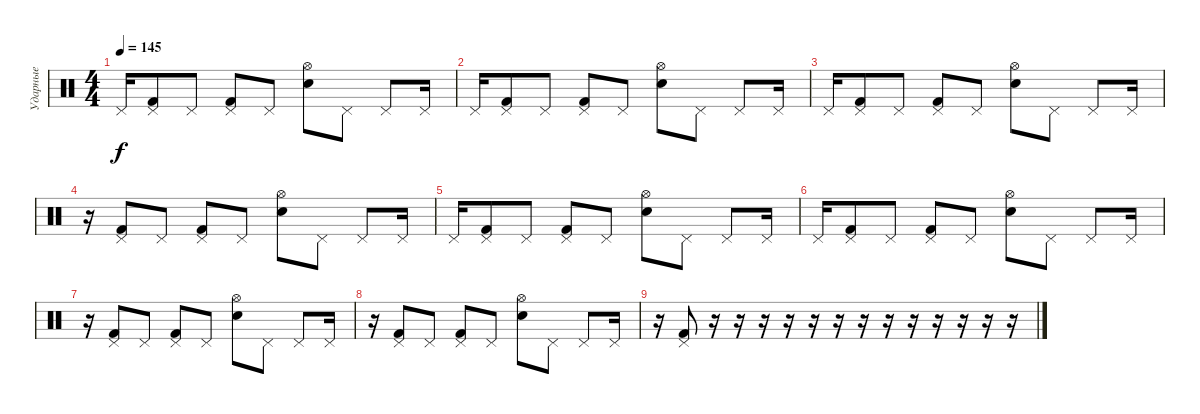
\track ("Ударные" "Ударные") {instrument percussion}
\staff {score}
\articulation defaults
\ts (4 4)
\tempo 145
\clef neutral
\ks c "Pedal Hi-Hat (hit)".16{dy f}
("Pedal Hi-Hat (hit)" "Kick (hit) 2").8 "Pedal Hi-Hat (hit)".8 ("Pedal Hi-Hat (hit)" "Kick (hit) 2").8 "Pedal Hi-Hat (hit)".8 ("Hi-Hat (open)" "Electric Snare (hit)").8 "Pedal Hi-Hat (hit)".8 "Pedal Hi-Hat (hit)".8 "Pedal Hi-Hat (hit)".16 |
"Pedal Hi-Hat (hit)".16 ("Pedal Hi-Hat (hit)" "Kick (hit) 2").8 "Pedal Hi-Hat (hit)".8 ("Pedal Hi-Hat (hit)" "Kick (hit) 2").8 "Pedal Hi-Hat (hit)".8 ("Hi-Hat (open)" "Electric Snare (hit)").8 "Pedal Hi-Hat (hit)".8 "Pedal Hi-Hat (hit)".8 "Pedal Hi-Hat (hit)".16 |
"Pedal Hi-Hat (hit)".16 ("Pedal Hi-Hat (hit)" "Kick (hit) 2").8 "Pedal Hi-Hat (hit)".8 ("Pedal Hi-Hat (hit)" "Kick (hit) 2").8 "Pedal Hi-Hat (hit)".8 ("Hi-Hat (open)" "Electric Snare (hit)").8 "Pedal Hi-Hat (hit)".8 "Pedal Hi-Hat (hit)".8 "Pedal Hi-Hat (hit)".16 |
r.16 ("Pedal Hi-Hat (hit)" "Kick (hit) 2").8 "Pedal Hi-Hat (hit)".8 ("Pedal Hi-Hat (hit)" "Kick (hit) 2").8 "Pedal Hi-Hat (hit)".8 ("Hi-Hat (open)" "Electric Snare (hit)").8 "Pedal Hi-Hat (hit)".8 "Pedal Hi-Hat (hit)".8 "Pedal Hi-Hat (hit)".16 |
"Pedal Hi-Hat (hit)".16 ("Pedal Hi-Hat (hit)" "Kick (hit) 2").8 "Pedal Hi-Hat (hit)".8 ("Pedal Hi-Hat (hit)" "Kick (hit) 2").8 "Pedal Hi-Hat (hit)".8 ("Hi-Hat (open)" "Electric Snare (hit)").8 "Pedal Hi-Hat (hit)".8 "Pedal Hi-Hat (hit)".8 "Pedal Hi-Hat (hit)".16 |
"Pedal Hi-Hat (hit)".16 ("Pedal Hi-Hat (hit)" "Kick (hit) 2").8 "Pedal Hi-Hat (hit)".8 ("Pedal Hi-Hat (hit)" "Kick (hit) 2").8 "Pedal Hi-Hat (hit)".8 ("Hi-Hat (open)" "Electric Snare (hit)").8 "Pedal Hi-Hat (hit)".8 "Pedal Hi-Hat (hit)".8 "Pedal Hi-Hat (hit)".16 |
r.16 ("Pedal Hi-Hat (hit)" "Kick (hit) 2").8 "Pedal Hi-Hat (hit)".8 ("Pedal Hi-Hat (hit)" "Kick (hit) 2").8 "Pedal Hi-Hat (hit)".8 ("Hi-Hat (open)" "Electric Snare (hit)").8 "Pedal Hi-Hat (hit)".8 "Pedal Hi-Hat (hit)".8 "Pedal Hi-Hat (hit)".16 |
r.16 ("Pedal Hi-Hat (hit)" "Kick (hit) 2").8 "Pedal Hi-Hat (hit)".8 ("Pedal Hi-Hat (hit)" "Kick (hit) 2").8 "Pedal Hi-Hat (hit)".8 ("Hi-Hat (open)" "Electric Snare (hit)").8 "Pedal Hi-Hat (hit)".8 "Pedal Hi-Hat (hit)".8 "Pedal Hi-Hat (hit)".16 |
r.16 ("Pedal Hi-Hat (hit)" "Kick (hit) 2").8 r.16 r.16 r.16 r.16 r.16 r.16 r.16 r.16 r.16 r.16 r.16 r.16 r.16
